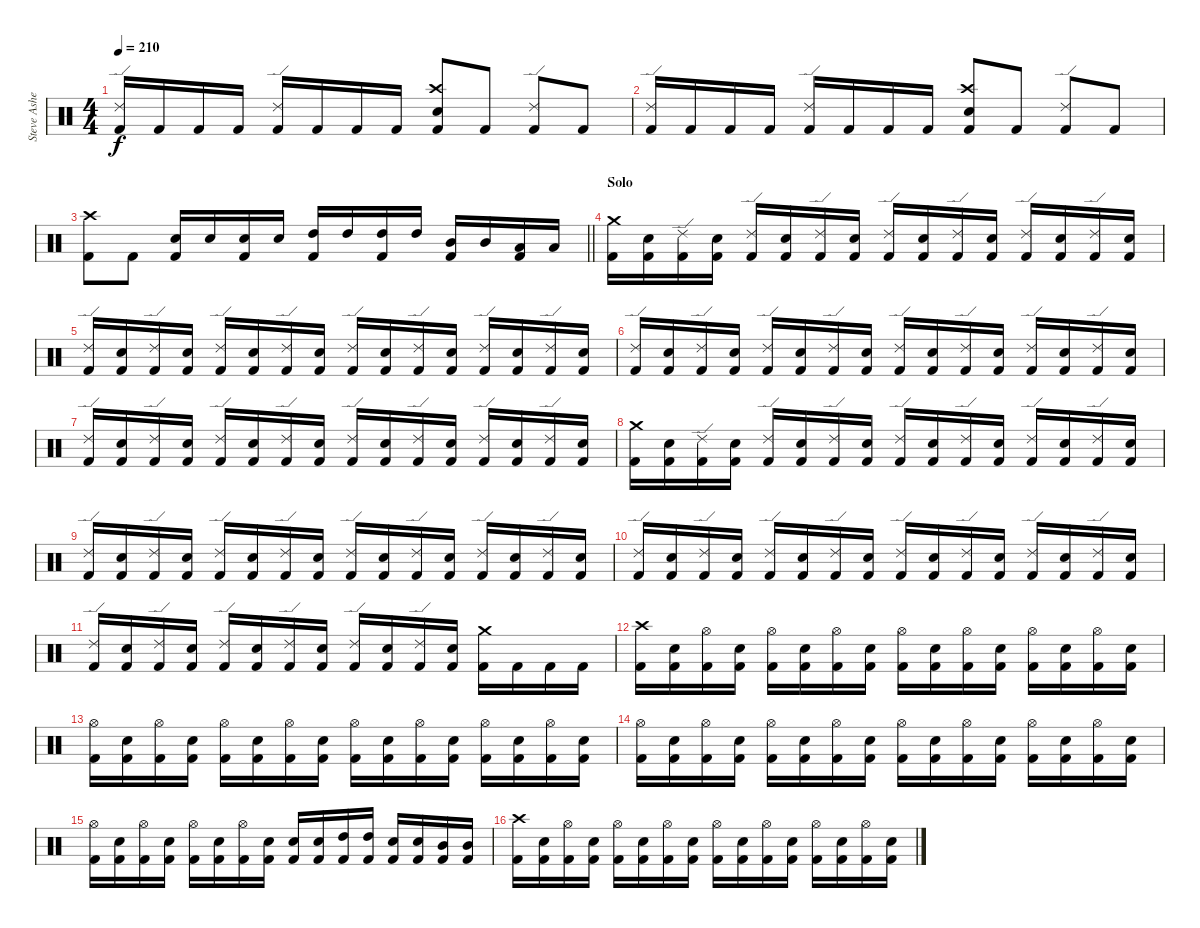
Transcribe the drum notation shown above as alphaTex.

\track ("Steve Asheim" "Steve Ashe") {instrument percussion}
\staff {score}
\articulation defaults
\ts (4 4)
\tempo 210
\clef neutral
\ks c
("Ride (edge) 2" "Kick (hit) 2").16{dy f} "Kick (hit) 2".16 "Kick (hit) 2".16 "Kick (hit) 2".16 ("Ride (edge) 2" "Kick (hit) 2").16 "Kick (hit) 2".16 "Kick (hit) 2".16 "Kick (hit) 2".16 ("Crash high (hit)" "Electric Snare (hit)" "Kick (hit) 2").8 "Kick (hit) 2".8 ("Ride (edge) 2" "Kick (hit) 2").8 "Kick (hit) 2".8 |
("Ride (edge) 2" "Kick (hit) 2").16 "Kick (hit) 2".16 "Kick (hit) 2".16 "Kick (hit) 2".16 ("Ride (edge) 2" "Kick (hit) 2").16 "Kick (hit) 2".16 "Kick (hit) 2".16 "Kick (hit) 2".16 ("Crash high (hit)" "Electric Snare (hit)" "Kick (hit) 2").8 "Kick (hit) 2".8 ("Ride (edge) 2" "Kick (hit) 2").8 "Kick (hit) 2".8 |
\barLineRight lightlight
("Crash high (hit)" "Kick (hit) 2").8 "Kick (hit) 2".8 ("Electric Snare (hit)" "Kick (hit) 2").16 "Electric Snare (hit)".16 ("Electric Snare (hit)" "Kick (hit) 2").16 "Electric Snare (hit)".16 ("High Tom (hit)" "Kick (hit) 2").16 "High Tom (hit)".16 ("High Tom (hit)" "Kick (hit) 2").16 "High Tom (hit)".16 ("Mid Tom (hit)" "Kick (hit) 2").16 "Mid Tom (hit)".16 ("Low Tom (hit)" "Kick (hit) 2").16 "Low Tom (hit)".16 |
\section ("" "Solo")
("Crash medium (hit)" "Kick (hit) 2").16 ("Electric Snare (hit)" "Kick (hit) 2").16 ("Ride (edge) 2" "Kick (hit) 2").16 ("Electric Snare (hit)" "Kick (hit) 2").16 ("Ride (edge) 2" "Kick (hit) 2").16 ("Electric Snare (hit)" "Kick (hit) 2").16 ("Ride (edge) 2" "Kick (hit) 2").16 ("Electric Snare (hit)" "Kick (hit) 2").16 ("Ride (edge) 2" "Kick (hit) 2").16 ("Electric Snare (hit)" "Kick (hit) 2").16 ("Ride (edge) 2" "Kick (hit) 2").16 ("Electric Snare (hit)" "Kick (hit) 2").16 ("Ride (edge) 2" "Kick (hit) 2").16 ("Electric Snare (hit)" "Kick (hit) 2").16 ("Ride (edge) 2" "Kick (hit) 2").16 ("Electric Snare (hit)" "Kick (hit) 2").16 |
("Ride (edge) 2" "Kick (hit) 2").16 ("Electric Snare (hit)" "Kick (hit) 2").16 ("Ride (edge) 2" "Kick (hit) 2").16 ("Electric Snare (hit)" "Kick (hit) 2").16 ("Ride (edge) 2" "Kick (hit) 2").16 ("Electric Snare (hit)" "Kick (hit) 2").16 ("Ride (edge) 2" "Kick (hit) 2").16 ("Electric Snare (hit)" "Kick (hit) 2").16 ("Ride (edge) 2" "Kick (hit) 2").16 ("Electric Snare (hit)" "Kick (hit) 2").16 ("Ride (edge) 2" "Kick (hit) 2").16 ("Electric Snare (hit)" "Kick (hit) 2").16 ("Ride (edge) 2" "Kick (hit) 2").16 ("Electric Snare (hit)" "Kick (hit) 2").16 ("Ride (edge) 2" "Kick (hit) 2").16 ("Electric Snare (hit)" "Kick (hit) 2").16 |
("Ride (edge) 2" "Kick (hit) 2").16 ("Electric Snare (hit)" "Kick (hit) 2").16 ("Ride (edge) 2" "Kick (hit) 2").16 ("Electric Snare (hit)" "Kick (hit) 2").16 ("Ride (edge) 2" "Kick (hit) 2").16 ("Electric Snare (hit)" "Kick (hit) 2").16 ("Ride (edge) 2" "Kick (hit) 2").16 ("Electric Snare (hit)" "Kick (hit) 2").16 ("Ride (edge) 2" "Kick (hit) 2").16 ("Electric Snare (hit)" "Kick (hit) 2").16 ("Ride (edge) 2" "Kick (hit) 2").16 ("Electric Snare (hit)" "Kick (hit) 2").16 ("Ride (edge) 2" "Kick (hit) 2").16 ("Electric Snare (hit)" "Kick (hit) 2").16 ("Ride (edge) 2" "Kick (hit) 2").16 ("Electric Snare (hit)" "Kick (hit) 2").16 |
("Ride (edge) 2" "Kick (hit) 2").16 ("Electric Snare (hit)" "Kick (hit) 2").16 ("Ride (edge) 2" "Kick (hit) 2").16 ("Electric Snare (hit)" "Kick (hit) 2").16 ("Ride (edge) 2" "Kick (hit) 2").16 ("Electric Snare (hit)" "Kick (hit) 2").16 ("Ride (edge) 2" "Kick (hit) 2").16 ("Electric Snare (hit)" "Kick (hit) 2").16 ("Ride (edge) 2" "Kick (hit) 2").16 ("Electric Snare (hit)" "Kick (hit) 2").16 ("Ride (edge) 2" "Kick (hit) 2").16 ("Electric Snare (hit)" "Kick (hit) 2").16 ("Ride (edge) 2" "Kick (hit) 2").16 ("Electric Snare (hit)" "Kick (hit) 2").16 ("Ride (edge) 2" "Kick (hit) 2").16 ("Electric Snare (hit)" "Kick (hit) 2").16 |
("Crash medium (hit)" "Kick (hit) 2").16 ("Electric Snare (hit)" "Kick (hit) 2").16 ("Ride (edge) 2" "Kick (hit) 2").16 ("Electric Snare (hit)" "Kick (hit) 2").16 ("Ride (edge) 2" "Kick (hit) 2").16 ("Electric Snare (hit)" "Kick (hit) 2").16 ("Ride (edge) 2" "Kick (hit) 2").16 ("Electric Snare (hit)" "Kick (hit) 2").16 ("Ride (edge) 2" "Kick (hit) 2").16 ("Electric Snare (hit)" "Kick (hit) 2").16 ("Ride (edge) 2" "Kick (hit) 2").16 ("Electric Snare (hit)" "Kick (hit) 2").16 ("Ride (edge) 2" "Kick (hit) 2").16 ("Electric Snare (hit)" "Kick (hit) 2").16 ("Ride (edge) 2" "Kick (hit) 2").16 ("Electric Snare (hit)" "Kick (hit) 2").16 |
("Ride (edge) 2" "Kick (hit) 2").16 ("Electric Snare (hit)" "Kick (hit) 2").16 ("Ride (edge) 2" "Kick (hit) 2").16 ("Electric Snare (hit)" "Kick (hit) 2").16 ("Ride (edge) 2" "Kick (hit) 2").16 ("Electric Snare (hit)" "Kick (hit) 2").16 ("Ride (edge) 2" "Kick (hit) 2").16 ("Electric Snare (hit)" "Kick (hit) 2").16 ("Ride (edge) 2" "Kick (hit) 2").16 ("Electric Snare (hit)" "Kick (hit) 2").16 ("Ride (edge) 2" "Kick (hit) 2").16 ("Electric Snare (hit)" "Kick (hit) 2").16 ("Ride (edge) 2" "Kick (hit) 2").16 ("Electric Snare (hit)" "Kick (hit) 2").16 ("Ride (edge) 2" "Kick (hit) 2").16 ("Electric Snare (hit)" "Kick (hit) 2").16 |
("Ride (edge) 2" "Kick (hit) 2").16 ("Electric Snare (hit)" "Kick (hit) 2").16 ("Ride (edge) 2" "Kick (hit) 2").16 ("Electric Snare (hit)" "Kick (hit) 2").16 ("Ride (edge) 2" "Kick (hit) 2").16 ("Electric Snare (hit)" "Kick (hit) 2").16 ("Ride (edge) 2" "Kick (hit) 2").16 ("Electric Snare (hit)" "Kick (hit) 2").16 ("Ride (edge) 2" "Kick (hit) 2").16 ("Electric Snare (hit)" "Kick (hit) 2").16 ("Ride (edge) 2" "Kick (hit) 2").16 ("Electric Snare (hit)" "Kick (hit) 2").16 ("Ride (edge) 2" "Kick (hit) 2").16 ("Electric Snare (hit)" "Kick (hit) 2").16 ("Ride (edge) 2" "Kick (hit) 2").16 ("Electric Snare (hit)" "Kick (hit) 2").16 |
("Ride (edge) 2" "Kick (hit) 2").16 ("Electric Snare (hit)" "Kick (hit) 2").16 ("Ride (edge) 2" "Kick (hit) 2").16 ("Electric Snare (hit)" "Kick (hit) 2").16 ("Ride (edge) 2" "Kick (hit) 2").16 ("Electric Snare (hit)" "Kick (hit) 2").16 ("Ride (edge) 2" "Kick (hit) 2").16 ("Electric Snare (hit)" "Kick (hit) 2").16 ("Ride (edge) 2" "Kick (hit) 2").16 ("Electric Snare (hit)" "Kick (hit) 2").16 ("Ride (edge) 2" "Kick (hit) 2").16 ("Electric Snare (hit)" "Kick (hit) 2").16 ("Crash medium (hit)" "Kick (hit) 2").16 "Kick (hit) 2".16 "Kick (hit) 2".16 "Kick (hit) 2".16 |
("Crash high (hit)" "Kick (hit) 2").16 ("Electric Snare (hit)" "Kick (hit) 2").16 ("Hi-Hat (open)" "Kick (hit) 2").16 ("Electric Snare (hit)" "Kick (hit) 2").16 ("Hi-Hat (open)" "Kick (hit) 2").16 ("Electric Snare (hit)" "Kick (hit) 2").16 ("Hi-Hat (open)" "Kick (hit) 2").16 ("Electric Snare (hit)" "Kick (hit) 2").16 ("Hi-Hat (open)" "Kick (hit) 2").16 ("Electric Snare (hit)" "Kick (hit) 2").16 ("Hi-Hat (open)" "Kick (hit) 2").16 ("Electric Snare (hit)" "Kick (hit) 2").16 ("Hi-Hat (open)" "Kick (hit) 2").16 ("Electric Snare (hit)" "Kick (hit) 2").16 ("Hi-Hat (open)" "Kick (hit) 2").16 ("Electric Snare (hit)" "Kick (hit) 2").16 |
("Hi-Hat (open)" "Kick (hit) 2").16 ("Electric Snare (hit)" "Kick (hit) 2").16 ("Hi-Hat (open)" "Kick (hit) 2").16 ("Electric Snare (hit)" "Kick (hit) 2").16 ("Hi-Hat (open)" "Kick (hit) 2").16 ("Electric Snare (hit)" "Kick (hit) 2").16 ("Hi-Hat (open)" "Kick (hit) 2").16 ("Electric Snare (hit)" "Kick (hit) 2").16 ("Hi-Hat (open)" "Kick (hit) 2").16 ("Electric Snare (hit)" "Kick (hit) 2").16 ("Hi-Hat (open)" "Kick (hit) 2").16 ("Electric Snare (hit)" "Kick (hit) 2").16 ("Hi-Hat (open)" "Kick (hit) 2").16 ("Electric Snare (hit)" "Kick (hit) 2").16 ("Hi-Hat (open)" "Kick (hit) 2").16 ("Electric Snare (hit)" "Kick (hit) 2").16 |
("Hi-Hat (open)" "Kick (hit) 2").16 ("Electric Snare (hit)" "Kick (hit) 2").16 ("Hi-Hat (open)" "Kick (hit) 2").16 ("Electric Snare (hit)" "Kick (hit) 2").16 ("Hi-Hat (open)" "Kick (hit) 2").16 ("Electric Snare (hit)" "Kick (hit) 2").16 ("Hi-Hat (open)" "Kick (hit) 2").16 ("Electric Snare (hit)" "Kick (hit) 2").16 ("Hi-Hat (open)" "Kick (hit) 2").16 ("Electric Snare (hit)" "Kick (hit) 2").16 ("Hi-Hat (open)" "Kick (hit) 2").16 ("Electric Snare (hit)" "Kick (hit) 2").16 ("Hi-Hat (open)" "Kick (hit) 2").16 ("Electric Snare (hit)" "Kick (hit) 2").16 ("Hi-Hat (open)" "Kick (hit) 2").16 ("Electric Snare (hit)" "Kick (hit) 2").16 |
("Hi-Hat (open)" "Kick (hit) 2").16 ("Electric Snare (hit)" "Kick (hit) 2").16 ("Hi-Hat (open)" "Kick (hit) 2").16 ("Electric Snare (hit)" "Kick (hit) 2").16 ("Hi-Hat (open)" "Kick (hit) 2").16 ("Electric Snare (hit)" "Kick (hit) 2").16 ("Hi-Hat (open)" "Kick (hit) 2").16 ("Electric Snare (hit)" "Kick (hit) 2").16 ("Electric Snare (hit)" "Kick (hit) 2").16 ("Electric Snare (hit)" "Kick (hit) 2").16 ("High Tom (hit)" "Kick (hit) 2").16 ("High Tom (hit)" "Kick (hit) 2").16 ("Electric Snare (hit)" "Kick (hit) 2").16 ("Electric Snare (hit)" "Kick (hit) 2").16 ("Mid Tom (hit)" "Kick (hit) 2").16 ("Mid Tom (hit)" "Kick (hit) 2").16 |
("Crash high (hit)" "Kick (hit) 2").16 ("Electric Snare (hit)" "Kick (hit) 2").16 ("Hi-Hat (open)" "Kick (hit) 2").16 ("Electric Snare (hit)" "Kick (hit) 2").16 ("Hi-Hat (open)" "Kick (hit) 2").16 ("Electric Snare (hit)" "Kick (hit) 2").16 ("Hi-Hat (open)" "Kick (hit) 2").16 ("Electric Snare (hit)" "Kick (hit) 2").16 ("Hi-Hat (open)" "Kick (hit) 2").16 ("Electric Snare (hit)" "Kick (hit) 2").16 ("Hi-Hat (open)" "Kick (hit) 2").16 ("Electric Snare (hit)" "Kick (hit) 2").16 ("Hi-Hat (open)" "Kick (hit) 2").16 ("Electric Snare (hit)" "Kick (hit) 2").16 ("Hi-Hat (open)" "Kick (hit) 2").16 ("Electric Snare (hit)" "Kick (hit) 2").16
